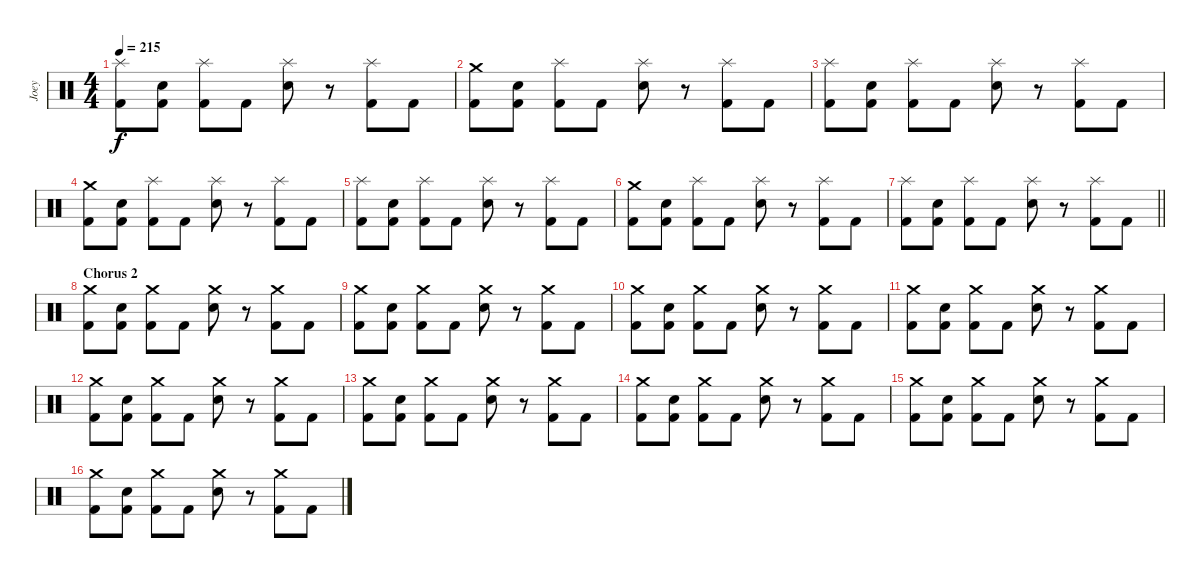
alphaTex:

\track ("Joey" "Joey") {instrument percussion}
\staff {score}
\articulation defaults
\ts (4 4)
\tempo 215
\clef neutral
\ks c
("Splash (hit)" "Kick (hit) 2").8{dy f} ("Electric Snare (hit)" "Kick (hit) 2").8 ("Splash (hit)" "Kick (hit) 2").8 "Kick (hit) 2".8 ("Splash (hit)" "Electric Snare (hit)").8 r.8 ("Splash (hit)" "Kick (hit) 2").8 "Kick (hit) 2".8 |
("Crash medium (hit)" "Kick (hit) 2").8 ("Electric Snare (hit)" "Kick (hit) 2").8 ("Splash (hit)" "Kick (hit) 2").8 "Kick (hit) 2".8 ("Splash (hit)" "Electric Snare (hit)").8 r.8 ("Splash (hit)" "Kick (hit) 2").8 "Kick (hit) 2".8 |
("Splash (hit)" "Kick (hit) 2").8 ("Electric Snare (hit)" "Kick (hit) 2").8 ("Splash (hit)" "Kick (hit) 2").8 "Kick (hit) 2".8 ("Splash (hit)" "Electric Snare (hit)").8 r.8 ("Splash (hit)" "Kick (hit) 2").8 "Kick (hit) 2".8 |
("Crash medium (hit)" "Kick (hit) 2").8 ("Electric Snare (hit)" "Kick (hit) 2").8 ("Splash (hit)" "Kick (hit) 2").8 "Kick (hit) 2".8 ("Splash (hit)" "Electric Snare (hit)").8 r.8 ("Splash (hit)" "Kick (hit) 2").8 "Kick (hit) 2".8 |
("Splash (hit)" "Kick (hit) 2").8 ("Electric Snare (hit)" "Kick (hit) 2").8 ("Splash (hit)" "Kick (hit) 2").8 "Kick (hit) 2".8 ("Splash (hit)" "Electric Snare (hit)").8 r.8 ("Splash (hit)" "Kick (hit) 2").8 "Kick (hit) 2".8 |
("Crash medium (hit)" "Kick (hit) 2").8 ("Electric Snare (hit)" "Kick (hit) 2").8 ("Splash (hit)" "Kick (hit) 2").8 "Kick (hit) 2".8 ("Splash (hit)" "Electric Snare (hit)").8 r.8 ("Splash (hit)" "Kick (hit) 2").8 "Kick (hit) 2".8 |
\barLineRight lightlight
("Splash (hit)" "Kick (hit) 2").8 ("Electric Snare (hit)" "Kick (hit) 2").8 ("Splash (hit)" "Kick (hit) 2").8 "Kick (hit) 2".8 ("Splash (hit)" "Electric Snare (hit)").8 r.8 ("Splash (hit)" "Kick (hit) 2").8 "Kick (hit) 2".8 |
\section ("" "Chorus 2")
("Crash medium (hit)" "Kick (hit) 2").8 ("Electric Snare (hit)" "Kick (hit) 2").8 ("Crash medium (hit)" "Kick (hit) 2").8 "Kick (hit) 2".8 ("Crash medium (hit)" "Electric Snare (hit)").8 r.8 ("Crash medium (hit)" "Kick (hit) 2").8 "Kick (hit) 2".8 |
("Crash medium (hit)" "Kick (hit) 2").8 ("Electric Snare (hit)" "Kick (hit) 2").8 ("Crash medium (hit)" "Kick (hit) 2").8 "Kick (hit) 2".8 ("Crash medium (hit)" "Electric Snare (hit)").8 r.8 ("Crash medium (hit)" "Kick (hit) 2").8 "Kick (hit) 2".8 |
("Crash medium (hit)" "Kick (hit) 2").8 ("Electric Snare (hit)" "Kick (hit) 2").8 ("Crash medium (hit)" "Kick (hit) 2").8 "Kick (hit) 2".8 ("Crash medium (hit)" "Electric Snare (hit)").8 r.8 ("Crash medium (hit)" "Kick (hit) 2").8 "Kick (hit) 2".8 |
("Crash medium (hit)" "Kick (hit) 2").8 ("Electric Snare (hit)" "Kick (hit) 2").8 ("Crash medium (hit)" "Kick (hit) 2").8 "Kick (hit) 2".8 ("Crash medium (hit)" "Electric Snare (hit)").8 r.8 ("Crash medium (hit)" "Kick (hit) 2").8 "Kick (hit) 2".8 |
("Crash medium (hit)" "Kick (hit) 2").8 ("Electric Snare (hit)" "Kick (hit) 2").8 ("Crash medium (hit)" "Kick (hit) 2").8 "Kick (hit) 2".8 ("Crash medium (hit)" "Electric Snare (hit)").8 r.8 ("Crash medium (hit)" "Kick (hit) 2").8 "Kick (hit) 2".8 |
("Crash medium (hit)" "Kick (hit) 2").8 ("Electric Snare (hit)" "Kick (hit) 2").8 ("Crash medium (hit)" "Kick (hit) 2").8 "Kick (hit) 2".8 ("Crash medium (hit)" "Electric Snare (hit)").8 r.8 ("Crash medium (hit)" "Kick (hit) 2").8 "Kick (hit) 2".8 |
("Crash medium (hit)" "Kick (hit) 2").8 ("Electric Snare (hit)" "Kick (hit) 2").8 ("Crash medium (hit)" "Kick (hit) 2").8 "Kick (hit) 2".8 ("Crash medium (hit)" "Electric Snare (hit)").8 r.8 ("Crash medium (hit)" "Kick (hit) 2").8 "Kick (hit) 2".8 |
("Crash medium (hit)" "Kick (hit) 2").8 ("Electric Snare (hit)" "Kick (hit) 2").8 ("Crash medium (hit)" "Kick (hit) 2").8 "Kick (hit) 2".8 ("Crash medium (hit)" "Electric Snare (hit)").8 r.8 ("Crash medium (hit)" "Kick (hit) 2").8 "Kick (hit) 2".8 |
("Crash medium (hit)" "Kick (hit) 2").8 ("Electric Snare (hit)" "Kick (hit) 2").8 ("Crash medium (hit)" "Kick (hit) 2").8 "Kick (hit) 2".8 ("Crash medium (hit)" "Electric Snare (hit)").8 r.8 ("Crash medium (hit)" "Kick (hit) 2").8 "Kick (hit) 2".8
